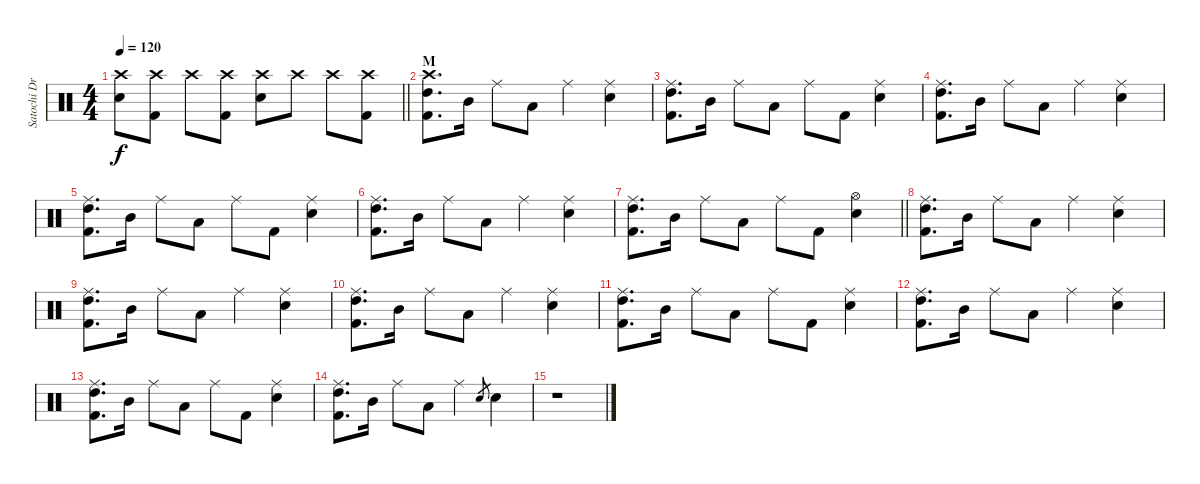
\track ("Satochi Drums" "Satochi Dr") {instrument percussion}
\staff {score}
\articulation defaults
\ts (4 4)
\tempo 120
\clef neutral
\barLineRight lightlight
\ks c
("Crash high (hit)" "Snare (hit) 2").8{dy f} ("Crash high (hit)" "Kick (hit) 2").8 "Crash high (hit)".8 ("Crash high (hit)" "Kick (hit) 2").8 ("Crash high (hit)" "Snare (hit) 2").8 "Crash high (hit)".8 "Crash high (hit)".8 ("Crash high (hit)" "Kick (hit) 2").8 |
\section ("" "M")
("Crash high (hit)" "High Tom (hit)" "Kick (hit) 2").8{d} "Mid Tom (hit)".16 "Ride (middle)".8 "Low Floor Tom (hit)".8 "Ride (middle)".4 ("Ride (middle)" "Snare (hit) 2").4 |
("Ride (middle)" "High Tom (hit)" "Kick (hit) 2").8{d} "Mid Tom (hit)".16 "Ride (middle)".8 "Low Floor Tom (hit)".8 "Ride (middle)".8 "Kick (hit) 2".8 ("Ride (middle)" "Snare (hit) 2").4 |
("Ride (middle)" "High Tom (hit)" "Kick (hit) 2").8{d} "Mid Tom (hit)".16 "Ride (middle)".8 "Low Floor Tom (hit)".8 "Ride (middle)".4 ("Ride (middle)" "Snare (hit) 2").4 |
("Ride (middle)" "High Tom (hit)" "Kick (hit) 2").8{d} "Mid Tom (hit)".16 "Ride (middle)".8 "Low Floor Tom (hit)".8 "Ride (middle)".8 "Kick (hit) 2".8 ("Ride (middle)" "Snare (hit) 2").4 |
("Ride (middle)" "High Tom (hit)" "Kick (hit) 2").8{d} "Mid Tom (hit)".16 "Ride (middle)".8 "Low Floor Tom (hit)".8 "Ride (middle)".4 ("Ride (middle)" "Snare (hit) 2").4 |
\barLineRight lightlight
("Ride (middle)" "High Tom (hit)" "Kick (hit) 2").8{d} "Mid Tom (hit)".16 "Ride (middle)".8 "Low Floor Tom (hit)".8 "Ride (middle)".8 "Kick (hit) 2".8 ("Hi-Hat (open)" "Snare (hit) 2").4 |
("Ride (middle)" "High Tom (hit)" "Kick (hit) 2").8{d} "Mid Tom (hit)".16 "Ride (middle)".8 "Low Floor Tom (hit)".8 "Ride (middle)".4 ("Ride (middle)" "Snare (hit) 2").4 |
("Ride (middle)" "High Tom (hit)" "Kick (hit) 2").8{d} "Mid Tom (hit)".16 "Ride (middle)".8 "Low Floor Tom (hit)".8 "Ride (middle)".4 ("Ride (middle)" "Snare (hit) 2").4 |
("Ride (middle)" "High Tom (hit)" "Kick (hit) 2").8{d} "Mid Tom (hit)".16 "Ride (middle)".8 "Low Floor Tom (hit)".8 "Ride (middle)".4 ("Ride (middle)" "Snare (hit) 2").4 |
("Ride (middle)" "High Tom (hit)" "Kick (hit) 2").8{d} "Mid Tom (hit)".16 "Ride (middle)".8 "Low Floor Tom (hit)".8 "Ride (middle)".8 "Kick (hit) 2".8 ("Ride (middle)" "Snare (hit) 2").4 |
("Ride (middle)" "High Tom (hit)" "Kick (hit) 2").8{d} "Mid Tom (hit)".16 "Ride (middle)".8 "Low Floor Tom (hit)".8 "Ride (middle)".4 ("Ride (middle)" "Snare (hit) 2").4 |
("Ride (middle)" "High Tom (hit)" "Kick (hit) 2").8{d} "Mid Tom (hit)".16 "Ride (middle)".8 "Low Floor Tom (hit)".8 "Ride (middle)".8 "Kick (hit) 2".8 ("Ride (middle)" "Snare (hit) 2").4 |
("Ride (middle)" "High Tom (hit)" "Kick (hit) 2").8{d} "Mid Tom (hit)".16 "Ride (middle)".8 "Low Floor Tom (hit)".8 "Ride (middle)".4 "Snare (hit) 2".8{gr} "Snare (hit) 2".4 |
r.1
